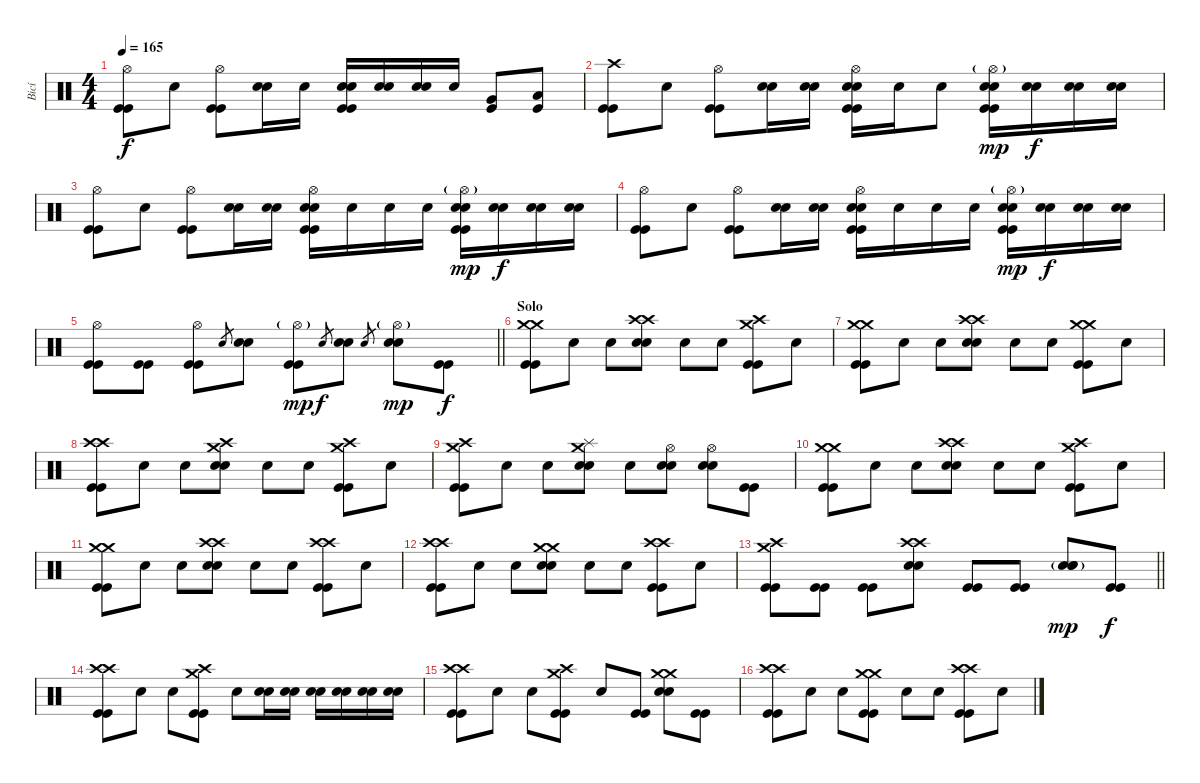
\track ("Bicí" "Bicí") {instrument percussion}
\staff {score}
\articulation defaults
\ts (4 4)
\tempo 165
\clef neutral
\ks c
("Hi-Hat (open)" "Kick (hit)" "Kick (hit)").8{dy f} "Snare (hit)".8 ("Hi-Hat (open)" "Kick (hit)" "Kick (hit)").8 ("Electric Snare (hit)" "Electric Snare (hit)").16 "Snare (hit)".16 ("Electric Snare (hit)" "Electric Snare (hit)" "Kick (hit)" "Kick (hit)").16 ("Electric Snare (hit)" "Electric Snare (hit)").16 ("Electric Snare (hit)" "Electric Snare (hit)").16 "Snare (hit)".16 ("Very Low Tom (hit)" "Kick (hit)").8 ("Low Floor Tom (hit)" "Kick (hit)").8 |
("Crash high (hit)" "Kick (hit)" "Kick (hit)").8 "Snare (hit)".8 ("Hi-Hat (open)" "Kick (hit)" "Kick (hit)").8 ("Electric Snare (hit)" "Electric Snare (hit)").16 ("Electric Snare (hit)" "Electric Snare (hit)").16 ("Hi-Hat (open)" "Electric Snare (hit)" "Electric Snare (hit)" "Kick (hit)" "Kick (hit)").16 "Snare (hit)".16 "Snare (hit)".8 ("Hi-Hat (open)"{g} "Electric Snare (hit)" "Electric Snare (hit)" "Kick (hit)" "Kick (hit)").16{dy mp} ("Electric Snare (hit)" "Electric Snare (hit)").16{dy f} ("Electric Snare (hit)" "Electric Snare (hit)").16 ("Electric Snare (hit)" "Electric Snare (hit)").16 |
("Hi-Hat (open)" "Kick (hit)" "Kick (hit)").8 "Snare (hit)".8 ("Hi-Hat (open)" "Kick (hit)" "Kick (hit)").8 ("Electric Snare (hit)" "Electric Snare (hit)").16 ("Electric Snare (hit)" "Electric Snare (hit)").16 ("Hi-Hat (open)" "Electric Snare (hit)" "Electric Snare (hit)" "Kick (hit)" "Kick (hit)").16 "Snare (hit)".16 "Snare (hit)".16 "Snare (hit)".16 ("Hi-Hat (open)"{g} "Electric Snare (hit)" "Electric Snare (hit)" "Kick (hit)" "Kick (hit)").16{dy mp} ("Electric Snare (hit)" "Electric Snare (hit)").16{dy f} ("Electric Snare (hit)" "Electric Snare (hit)").16 ("Electric Snare (hit)" "Electric Snare (hit)").16 |
("Hi-Hat (open)" "Kick (hit)" "Kick (hit)").8 "Snare (hit)".8 ("Hi-Hat (open)" "Kick (hit)" "Kick (hit)").8 ("Electric Snare (hit)" "Electric Snare (hit)").16 ("Electric Snare (hit)" "Electric Snare (hit)").16 ("Hi-Hat (open)" "Electric Snare (hit)" "Electric Snare (hit)" "Kick (hit)" "Kick (hit)").16 "Snare (hit)".16 "Snare (hit)".16 "Snare (hit)".16 ("Hi-Hat (open)"{g} "Electric Snare (hit)" "Electric Snare (hit)" "Kick (hit)" "Kick (hit)").16{dy mp} ("Electric Snare (hit)" "Electric Snare (hit)").16{dy f} ("Electric Snare (hit)" "Electric Snare (hit)").16 ("Electric Snare (hit)" "Electric Snare (hit)").16 |
\barLineRight lightlight
("Hi-Hat (open)" "Kick (hit)" "Kick (hit)").8 ("Kick (hit)" "Kick (hit)").8 ("Hi-Hat (open)" "Kick (hit)" "Kick (hit)").8 "Electric Snare (hit)".8{gr} ("Electric Snare (hit)" "Electric Snare (hit)").8 ("Hi-Hat (open)"{g} "Kick (hit)" "Kick (hit)").8{dy mp} "Electric Snare (hit)".8{gr dy f} ("Electric Snare (hit)" "Electric Snare (hit)").8 "Electric Snare (hit)".8{gr} ("Hi-Hat (open)"{g} "Electric Snare (hit)" "Electric Snare (hit)").8{dy mp} ("Kick (hit)" "Kick (hit)").8{dy f} |
\section ("" "Solo")
("Crash medium (hit)" "Crash medium (hit)" "Kick (hit)" "Kick (hit)").8 "Snare (hit)".8 "Snare (hit)".8 ("Crash high (hit)" "Crash high (hit)" "Electric Snare (hit)" "Electric Snare (hit)").8 "Snare (hit)".8 "Snare (hit)".8 ("Crash medium (hit)" "Crash high (hit)" "Kick (hit)" "Kick (hit)").8 "Snare (hit)".8 |
("Crash medium (hit)" "Crash medium (hit)" "Kick (hit)" "Kick (hit)").8 "Snare (hit)".8 "Snare (hit)".8 ("Crash high (hit)" "Crash high (hit)" "Electric Snare (hit)" "Electric Snare (hit)").8 "Snare (hit)".8 "Snare (hit)".8 ("Crash medium (hit)" "Crash medium (hit)" "Kick (hit)" "Kick (hit)").8 "Snare (hit)".8 |
("Crash high (hit)" "Crash high (hit)" "Kick (hit)" "Kick (hit)").8 "Snare (hit)".8 "Snare (hit)".8 ("Crash medium (hit)" "Crash high (hit)" "Electric Snare (hit)" "Electric Snare (hit)").8 "Snare (hit)".8 "Snare (hit)".8 ("Crash medium (hit)" "Crash high (hit)" "Kick (hit)" "Kick (hit)").8 "Snare (hit)".8 |
("Crash medium (hit)" "Crash high (hit)" "Kick (hit)" "Kick (hit)").8 "Snare (hit)".8 "Snare (hit)".8 ("Crash medium (hit)" "Splash (hit)" "Electric Snare (hit)" "Electric Snare (hit)").8 "Snare (hit)".8 ("Hi-Hat (open)" "Electric Snare (hit)" "Electric Snare (hit)").8 ("Hi-Hat (open)" "Electric Snare (hit)" "Electric Snare (hit)").8 ("Kick (hit)" "Kick (hit)").8 |
("Crash medium (hit)" "Crash medium (hit)" "Kick (hit)" "Kick (hit)").8 "Snare (hit)".8 "Snare (hit)".8 ("Crash high (hit)" "Crash high (hit)" "Electric Snare (hit)" "Electric Snare (hit)").8 "Snare (hit)".8 "Snare (hit)".8 ("Crash medium (hit)" "Crash high (hit)" "Kick (hit)" "Kick (hit)").8 "Snare (hit)".8 |
("Crash medium (hit)" "Crash medium (hit)" "Kick (hit)" "Kick (hit)").8 "Snare (hit)".8 "Snare (hit)".8 ("Crash high (hit)" "Crash high (hit)" "Electric Snare (hit)" "Electric Snare (hit)").8 "Snare (hit)".8 "Snare (hit)".8 ("Crash high (hit)" "Crash high (hit)" "Kick (hit)" "Kick (hit)").8 "Snare (hit)".8 |
("Crash high (hit)" "Crash high (hit)" "Kick (hit)" "Kick (hit)").8 "Snare (hit)".8 "Snare (hit)".8 ("Crash medium (hit)" "Crash medium (hit)" "Electric Snare (hit)" "Electric Snare (hit)").8 "Snare (hit)".8 "Snare (hit)".8 ("Crash high (hit)" "Crash high (hit)" "Kick (hit)" "Kick (hit)").8 "Snare (hit)".8 |
\barLineRight lightlight
("Crash medium (hit)" "Crash high (hit)" "Kick (hit)" "Kick (hit)").8 ("Kick (hit)" "Kick (hit)").8 ("Kick (hit)" "Kick (hit)").8 ("Crash high (hit)" "Crash high (hit)" "Electric Snare (hit)" "Electric Snare (hit)").8 ("Kick (hit)" "Kick (hit)").8 ("Kick (hit)" "Kick (hit)").8 ("Snare (hit) 2"{g} "Electric Snare (hit)" "Electric Snare (hit)").8{dy mp} ("Kick (hit)" "Kick (hit)").8{dy f} |
\section ("" "")
("Crash high (hit)" "Crash high (hit)" "Kick (hit)" "Kick (hit)").8 "Snare (hit)".8 "Snare (hit)".8 ("Crash medium (hit)" "Crash high (hit)" "Kick (hit)" "Kick (hit)").8 "Snare (hit)".8 ("Electric Snare (hit)" "Electric Snare (hit)").16 ("Electric Snare (hit)" "Electric Snare (hit)").16 ("Electric Snare (hit)" "Electric Snare (hit)").16 ("Electric Snare (hit)" "Electric Snare (hit)").16 ("Electric Snare (hit)" "Electric Snare (hit)").16 ("Electric Snare (hit)" "Electric Snare (hit)").16 |
("Crash high (hit)" "Crash high (hit)" "Kick (hit)" "Kick (hit)").8 "Snare (hit)".8 "Snare (hit)".8 ("Crash high (hit)" "Crash medium (hit)" "Kick (hit)" "Kick (hit)").8 "Snare (hit)".8 ("Kick (hit)" "Kick (hit)").8 ("Crash medium (hit)" "Crash medium (hit)" "Electric Snare (hit)" "Electric Snare (hit)").8 ("Kick (hit)" "Kick (hit)").8 |
("Crash high (hit)" "Crash high (hit)" "Kick (hit)" "Kick (hit)").8 "Snare (hit)".8 "Snare (hit)".8 ("Crash medium (hit)" "Crash medium (hit)" "Kick (hit)" "Kick (hit)").8 "Snare (hit)".8 "Snare (hit)".8 ("Crash high (hit)" "Crash high (hit)" "Kick (hit)" "Kick (hit)").8 "Snare (hit)".8
